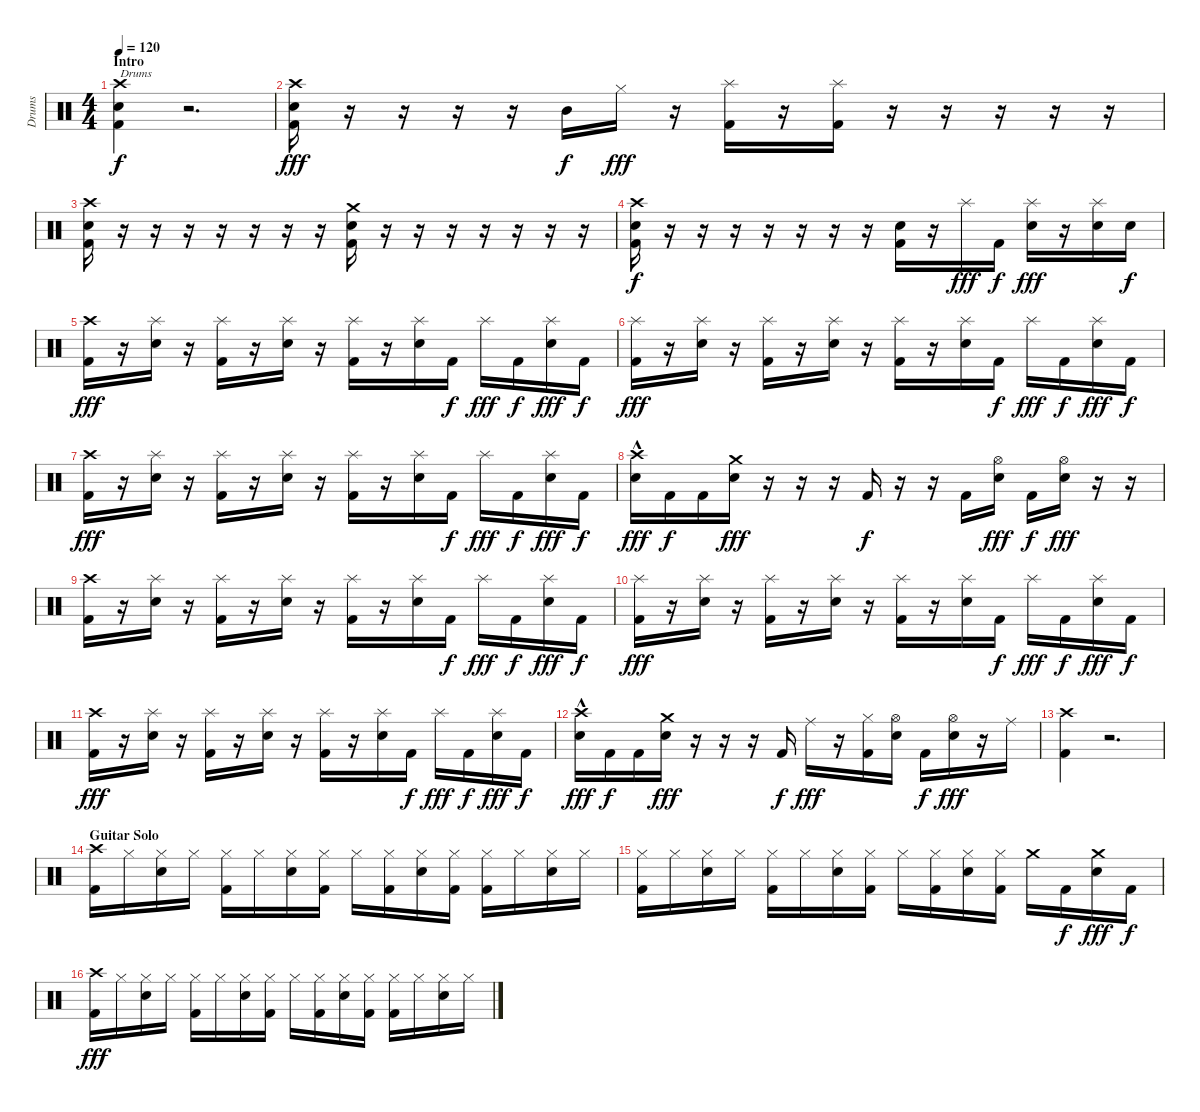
\track ("Drums" "Drums") {instrument percussion}
\staff {score}
\articulation defaults
\ts (4 4)
\section ("" "Intro")
\tempo 120
\clef neutral
\ks c
("Crash high (hit)" "Snare (hit) 2" "Kick (hit) 2").4{txt "Drums" dy f} r.2{d} |
("Crash high (hit)" "Snare (hit) 2" "Kick (hit) 2").16{dy fff} r.16 r.16 r.16 r.16 "Mid Tom (hit)".16{dy f} "Hi-Hat (closed)".16{dy fff} r.16 ("Splash (hit)" "Kick (hit) 2").16 r.16 ("Splash (hit)" "Kick (hit) 2").16 r.16 r.16 r.16 r.16 r.16 |
("Crash high (hit)" "Snare (hit) 2" "Kick (hit) 2").16 r.16 r.16 r.16 r.16 r.16 r.16 r.16 ("Crash medium (hit)" "Snare (hit) 2" "Kick (hit) 2").16 r.16 r.16 r.16 r.16 r.16 r.16 r.16 |
("Crash high (hit)" "Snare (hit) 2" "Kick (hit) 2").16{dy f} r.16 r.16 r.16 r.16 r.16 r.16 r.16 ("Snare (hit) 2" "Kick (hit) 2").16 r.16 "Splash (hit)".16{dy fff} "Kick (hit) 2".16{dy f} ("Splash (hit)" "Snare (hit) 2").16{dy fff} r.16 ("Splash (hit)" "Snare (hit) 2").16 "Snare (hit) 2".16{dy f} |
("Crash high (hit)" "Kick (hit) 2").16{dy fff} r.16 ("Splash (hit)" "Snare (hit) 2").16 r.16 ("Splash (hit)" "Kick (hit) 2").16 r.16 ("Splash (hit)" "Snare (hit) 2").16 r.16 ("Splash (hit)" "Kick (hit) 2").16 r.16 ("Splash (hit)" "Snare (hit) 2").16 "Kick (hit) 2".16{dy f} "Splash (hit)".16{dy fff} "Kick (hit) 2".16{dy f} ("Splash (hit)" "Snare (hit) 2").16{dy fff} "Kick (hit) 2".16{dy f} |
("Splash (hit)" "Kick (hit) 2").16{dy fff} r.16 ("Splash (hit)" "Snare (hit) 2").16 r.16 ("Splash (hit)" "Kick (hit) 2").16 r.16 ("Splash (hit)" "Snare (hit) 2").16 r.16 ("Splash (hit)" "Kick (hit) 2").16 r.16 ("Splash (hit)" "Snare (hit) 2").16 "Kick (hit) 2".16{dy f} "Splash (hit)".16{dy fff} "Kick (hit) 2".16{dy f} ("Splash (hit)" "Snare (hit) 2").16{dy fff} "Kick (hit) 2".16{dy f} |
("Crash high (hit)" "Kick (hit) 2").16{dy fff} r.16 ("Splash (hit)" "Snare (hit) 2").16 r.16 ("Splash (hit)" "Kick (hit) 2").16 r.16 ("Splash (hit)" "Snare (hit) 2").16 r.16 ("Splash (hit)" "Kick (hit) 2").16 r.16 ("Splash (hit)" "Snare (hit) 2").16 "Kick (hit) 2".16{dy f} "Splash (hit)".16{dy fff} "Kick (hit) 2".16{dy f} ("Splash (hit)" "Snare (hit) 2").16{dy fff} "Kick (hit) 2".16{dy f} |
("Crash high (hit)"{hac} "Snare (hit) 2").16{dy fff} "Kick (hit) 2".16{dy f} "Kick (hit) 2".16 ("Crash medium (hit)" "Snare (hit) 2").16{dy fff} r.16 r.16 r.16 "Kick (hit) 2".16{dy f} r.16 r.16 "Kick (hit) 2".16 ("Hi-Hat (open)" "Snare (hit) 2").16{dy fff} "Kick (hit) 2".16{dy f} ("Hi-Hat (open)" "Snare (hit) 2").16{dy fff} r.16 r.16 |
("Crash high (hit)" "Kick (hit) 2").16 r.16 ("Splash (hit)" "Snare (hit) 2").16 r.16 ("Splash (hit)" "Kick (hit) 2").16 r.16 ("Splash (hit)" "Snare (hit) 2").16 r.16 ("Splash (hit)" "Kick (hit) 2").16 r.16 ("Splash (hit)" "Snare (hit) 2").16 "Kick (hit) 2".16{dy f} "Splash (hit)".16{dy fff} "Kick (hit) 2".16{dy f} ("Splash (hit)" "Snare (hit) 2").16{dy fff} "Kick (hit) 2".16{dy f} |
("Splash (hit)" "Kick (hit) 2").16{dy fff} r.16 ("Splash (hit)" "Snare (hit) 2").16 r.16 ("Splash (hit)" "Kick (hit) 2").16 r.16 ("Splash (hit)" "Snare (hit) 2").16 r.16 ("Splash (hit)" "Kick (hit) 2").16 r.16 ("Splash (hit)" "Snare (hit) 2").16 "Kick (hit) 2".16{dy f} "Splash (hit)".16{dy fff} "Kick (hit) 2".16{dy f} ("Splash (hit)" "Snare (hit) 2").16{dy fff} "Kick (hit) 2".16{dy f} |
("Crash high (hit)" "Kick (hit) 2").16{dy fff} r.16 ("Splash (hit)" "Snare (hit) 2").16 r.16 ("Splash (hit)" "Kick (hit) 2").16 r.16 ("Splash (hit)" "Snare (hit) 2").16 r.16 ("Splash (hit)" "Kick (hit) 2").16 r.16 ("Splash (hit)" "Snare (hit) 2").16 "Kick (hit) 2".16{dy f} "Splash (hit)".16{dy fff} "Kick (hit) 2".16{dy f} ("Splash (hit)" "Snare (hit) 2").16{dy fff} "Kick (hit) 2".16{dy f} |
("Crash high (hit)"{hac} "Snare (hit) 2").16{dy fff} "Kick (hit) 2".16{dy f} "Kick (hit) 2".16 ("Crash medium (hit)" "Snare (hit) 2").16{dy fff} r.16 r.16 r.16 "Kick (hit) 2".16{dy f} "Ride (middle)".16{dy fff} r.16 ("Hi-Hat (closed)" "Kick (hit) 2").16 ("Hi-Hat (open)" "Snare (hit) 2").16 "Kick (hit) 2".16{dy f} ("Hi-Hat (open)" "Snare (hit) 2").16{dy fff} r.16 "Ride (middle)".16 |
("Crash high (hit)" "Kick (hit) 2").4 r.2{d} |
\section ("" "Guitar Solo")
("Crash high (hit)" "Kick (hit) 2").16 "Hi-Hat (closed)".16 ("Hi-Hat (closed)" "Snare (hit) 2").16 "Hi-Hat (closed)".16 ("Hi-Hat (closed)" "Kick (hit) 2").16 "Hi-Hat (closed)".16 ("Hi-Hat (closed)" "Snare (hit) 2").16 ("Hi-Hat (closed)" "Kick (hit) 2").16 "Hi-Hat (closed)".16 ("Hi-Hat (closed)" "Kick (hit) 2").16 ("Hi-Hat (closed)" "Snare (hit) 2").16 ("Hi-Hat (closed)" "Kick (hit) 2").16 ("Hi-Hat (closed)" "Kick (hit) 2").16 "Hi-Hat (closed)".16 ("Hi-Hat (closed)" "Snare (hit) 2").16 "Hi-Hat (closed)".16 |
("Hi-Hat (closed)" "Kick (hit) 2").16 "Hi-Hat (closed)".16 ("Hi-Hat (closed)" "Snare (hit) 2").16 "Hi-Hat (closed)".16 ("Hi-Hat (closed)" "Kick (hit) 2").16 "Hi-Hat (closed)".16 ("Hi-Hat (closed)" "Snare (hit) 2").16 ("Hi-Hat (closed)" "Kick (hit) 2").16 "Hi-Hat (closed)".16 ("Hi-Hat (closed)" "Kick (hit) 2").16 ("Hi-Hat (closed)" "Snare (hit) 2").16 ("Hi-Hat (closed)" "Kick (hit) 2").16 "Crash medium (hit)".16 "Kick (hit) 2".16{dy f} ("Crash medium (hit)" "Snare (hit) 2").16{dy fff} "Kick (hit) 2".16{dy f} |
("Crash high (hit)" "Kick (hit) 2").16{dy fff} "Hi-Hat (closed)".16 ("Hi-Hat (closed)" "Snare (hit) 2").16 "Hi-Hat (closed)".16 ("Hi-Hat (closed)" "Kick (hit) 2").16 "Hi-Hat (closed)".16 ("Hi-Hat (closed)" "Snare (hit) 2").16 ("Hi-Hat (closed)" "Kick (hit) 2").16 "Hi-Hat (closed)".16 ("Hi-Hat (closed)" "Kick (hit) 2").16 ("Hi-Hat (closed)" "Snare (hit) 2").16 ("Hi-Hat (closed)" "Kick (hit) 2").16 ("Hi-Hat (closed)" "Kick (hit) 2").16 "Hi-Hat (closed)".16 ("Hi-Hat (closed)" "Snare (hit) 2").16 "Hi-Hat (closed)".16
